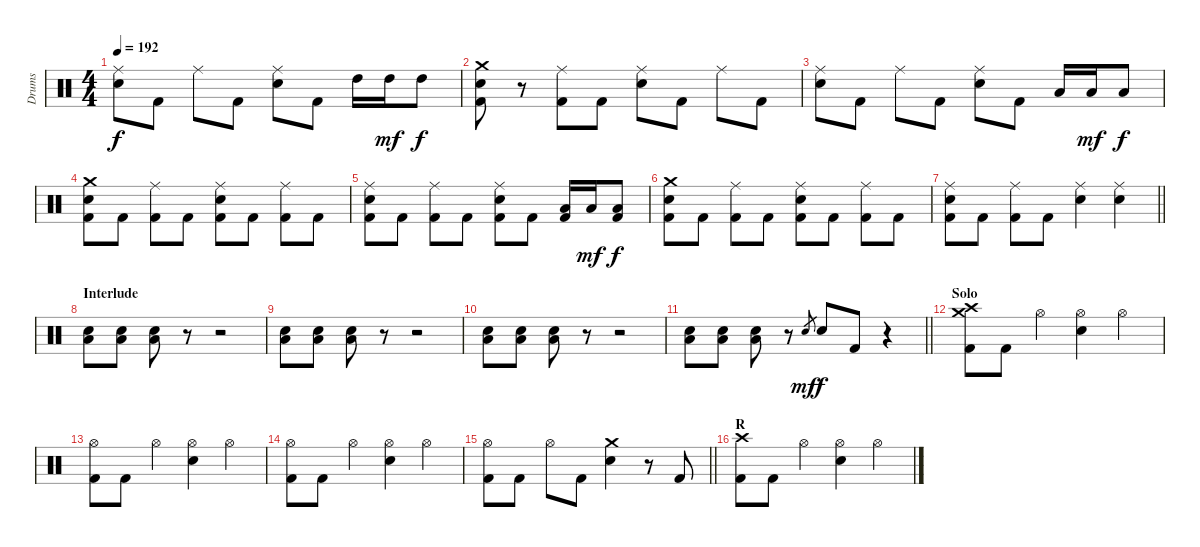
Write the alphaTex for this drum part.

\track ("Drums" "Drums") {instrument percussion}
\staff {score}
\articulation defaults
\ts (4 4)
\tempo 192
\clef neutral
\ks c
("Ride (middle)" "Snare (hit) 2").8{dy f} "Kick (hit) 2".8 "Ride (middle)".8 "Kick (hit) 2".8 ("Ride (middle)" "Snare (hit) 2").8 "Kick (hit) 2".8 "High Tom (hit)".16 "High Tom (hit)".16{dy mf} "High Tom (hit)".8{dy f} |
("Crash medium (hit)" "Snare (hit) 2" "Kick (hit) 2").8 r.8 ("Ride (middle)" "Kick (hit) 2").8 "Kick (hit) 2".8 ("Ride (middle)" "Snare (hit) 2").8 "Kick (hit) 2".8 "Ride (middle)".8 "Kick (hit) 2".8 |
("Ride (middle)" "Snare (hit) 2").8 "Kick (hit) 2".8 "Ride (middle)".8 "Kick (hit) 2".8 ("Ride (middle)" "Snare (hit) 2").8 "Kick (hit) 2".8 "Low Tom (hit)".16 "Low Tom (hit)".16{dy mf} "Low Tom (hit)".8{dy f} |
("Crash medium (hit)" "Snare (hit) 2" "Kick (hit) 2").8 "Kick (hit) 2".8 ("Ride (middle)" "Kick (hit) 2").8 "Kick (hit) 2".8 ("Ride (middle)" "Snare (hit) 2" "Kick (hit) 2").8 "Kick (hit) 2".8 ("Ride (middle)" "Kick (hit) 2").8 "Kick (hit) 2".8 |
("Ride (middle)" "Snare (hit) 2" "Kick (hit) 2").8 "Kick (hit) 2".8 ("Ride (middle)" "Kick (hit) 2").8 "Kick (hit) 2".8 ("Ride (middle)" "Snare (hit) 2" "Kick (hit) 2").8 "Kick (hit) 2".8 ("Low Tom (hit)" "Kick (hit) 2").16 "Low Tom (hit)".16{dy mf} ("Low Tom (hit)" "Kick (hit) 2").8{dy f} |
("Crash medium (hit)" "Snare (hit) 2" "Kick (hit) 2").8 "Kick (hit) 2".8 ("Ride (middle)" "Kick (hit) 2").8 "Kick (hit) 2".8 ("Ride (middle)" "Snare (hit) 2" "Kick (hit) 2").8 "Kick (hit) 2".8 ("Ride (middle)" "Kick (hit) 2").8 "Kick (hit) 2".8 |
\barLineRight lightlight
("Ride (middle)" "Snare (hit) 2" "Kick (hit) 2").8 "Kick (hit) 2".8 ("Ride (middle)" "Kick (hit) 2").8 "Kick (hit) 2".8 ("Ride (middle)" "Snare (hit) 2").4 ("Ride (middle)" "Snare (hit) 2").4 |
\section ("" "Interlude")
("Low Floor Tom (hit)" "Snare (hit) 2").8 ("Low Floor Tom (hit)" "Snare (hit) 2").8 ("Low Floor Tom (hit)" "Snare (hit) 2").8 r.8 r.2 |
("Low Floor Tom (hit)" "Snare (hit) 2").8 ("Low Floor Tom (hit)" "Snare (hit) 2").8 ("Low Floor Tom (hit)" "Snare (hit) 2").8 r.8 r.2 |
("Low Floor Tom (hit)" "Snare (hit) 2").8 ("Low Floor Tom (hit)" "Snare (hit) 2").8 ("Low Floor Tom (hit)" "Snare (hit) 2").8 r.8 r.2 |
\barLineRight lightlight
("Low Floor Tom (hit)" "Snare (hit) 2").8 ("Low Floor Tom (hit)" "Snare (hit) 2").8 ("Low Floor Tom (hit)" "Snare (hit) 2").8 r.8 "Snare (hit) 2".8{gr dy mf} "Snare (hit) 2".8{dy f} "Kick (hit) 2".8 r.4 |
\section ("" "Solo")
("Crash high (hit)" "Crash medium (hit)" "Kick (hit) 2").8 "Kick (hit) 2".8 "Hi-Hat (open)".4 ("Hi-Hat (open)" "Snare (hit) 2").4 "Hi-Hat (open)".4 |
("Hi-Hat (open)" "Kick (hit) 2").8 "Kick (hit) 2".8 "Hi-Hat (open)".4 ("Hi-Hat (open)" "Snare (hit) 2").4 "Hi-Hat (open)".4 |
("Hi-Hat (open)" "Kick (hit) 2").8 "Kick (hit) 2".8 "Hi-Hat (open)".4 ("Hi-Hat (open)" "Snare (hit) 2").4 "Hi-Hat (open)".4 |
\barLineRight lightlight
("Hi-Hat (open)" "Kick (hit) 2").8 "Kick (hit) 2".8 "Hi-Hat (open)".8 "Kick (hit) 2".8 ("Crash medium (hit)" "Snare (hit) 2").4 r.8 "Kick (hit) 2".8 |
\section ("" "R")
("Crash high (hit)" "Kick (hit) 2").8 "Kick (hit) 2".8 "Hi-Hat (open)".4 ("Hi-Hat (open)" "Snare (hit) 2").4 "Hi-Hat (open)".4
